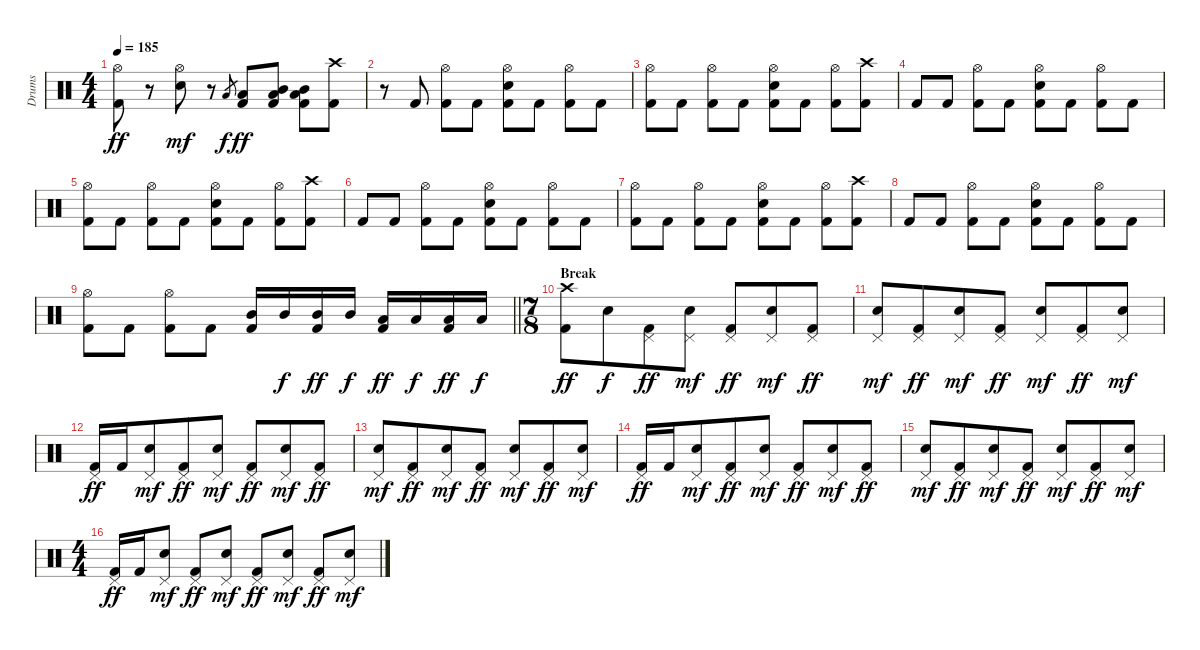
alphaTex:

\track ("Drums" "Drums") {instrument percussion}
\staff {score}
\articulation defaults
\ts (4 4)
\tempo 185
\clef neutral
\ks c
("Hi-Hat (open)" "Kick (hit) 2").8{dy ff} r.8 ("Hi-Hat (open)" "Electric Snare (hit)").8{dy mf} r.8 "Low Tom (hit)".8{gr dy f} ("Low Tom (hit)" "Kick (hit) 2").8{dy ff} ("Mid Tom (hit)" "Low Tom (hit)" "Kick (hit) 2").8 ("Mid Tom (hit)" "Low Tom (hit)" "Kick (hit) 2").8 ("Crash high (hit)" "Kick (hit) 2").8 |
r.8 "Kick (hit) 2".8 ("Hi-Hat (open)" "Kick (hit) 2").8 "Kick (hit) 2".8 ("Hi-Hat (open)" "Electric Snare (hit)" "Kick (hit) 2").8 "Kick (hit) 2".8 ("Hi-Hat (open)" "Kick (hit) 2").8 "Kick (hit) 2".8 |
("Hi-Hat (open)" "Kick (hit) 2").8 "Kick (hit) 2".8 ("Hi-Hat (open)" "Kick (hit) 2").8 "Kick (hit) 2".8 ("Hi-Hat (open)" "Electric Snare (hit)" "Kick (hit) 2").8 "Kick (hit) 2".8 ("Hi-Hat (open)" "Kick (hit) 2").8 ("Crash high (hit)" "Kick (hit) 2").8 |
"Kick (hit) 2".8 "Kick (hit) 2".8 ("Hi-Hat (open)" "Kick (hit) 2").8 "Kick (hit) 2".8 ("Hi-Hat (open)" "Electric Snare (hit)" "Kick (hit) 2").8 "Kick (hit) 2".8 ("Hi-Hat (open)" "Kick (hit) 2").8 "Kick (hit) 2".8 |
("Hi-Hat (open)" "Kick (hit) 2").8 "Kick (hit) 2".8 ("Hi-Hat (open)" "Kick (hit) 2").8 "Kick (hit) 2".8 ("Hi-Hat (open)" "Electric Snare (hit)" "Kick (hit) 2").8 "Kick (hit) 2".8 ("Hi-Hat (open)" "Kick (hit) 2").8 ("Crash high (hit)" "Kick (hit) 2").8 |
"Kick (hit) 2".8 "Kick (hit) 2".8 ("Hi-Hat (open)" "Kick (hit) 2").8 "Kick (hit) 2".8 ("Hi-Hat (open)" "Electric Snare (hit)" "Kick (hit) 2").8 "Kick (hit) 2".8 ("Hi-Hat (open)" "Kick (hit) 2").8 "Kick (hit) 2".8 |
("Hi-Hat (open)" "Kick (hit) 2").8 "Kick (hit) 2".8 ("Hi-Hat (open)" "Kick (hit) 2").8 "Kick (hit) 2".8 ("Hi-Hat (open)" "Electric Snare (hit)" "Kick (hit) 2").8 "Kick (hit) 2".8 ("Hi-Hat (open)" "Kick (hit) 2").8 ("Crash high (hit)" "Kick (hit) 2").8 |
"Kick (hit) 2".8 "Kick (hit) 2".8 ("Hi-Hat (open)" "Kick (hit) 2").8 "Kick (hit) 2".8 ("Hi-Hat (open)" "Electric Snare (hit)" "Kick (hit) 2").8 "Kick (hit) 2".8 ("Hi-Hat (open)" "Kick (hit) 2").8 "Kick (hit) 2".8 |
\barLineRight lightlight
("Hi-Hat (open)" "Kick (hit) 2").8 "Kick (hit) 2".8 ("Hi-Hat (open)" "Kick (hit) 2").8 "Kick (hit) 2".8 ("Mid Tom (hit)" "Kick (hit) 2").16 "Mid Tom (hit)".16{dy f} ("Mid Tom (hit)" "Kick (hit) 2").16{dy ff} "Mid Tom (hit)".16{dy f} ("Low Tom (hit)" "Kick (hit) 2").16{dy ff} "Low Tom (hit)".16{dy f} ("Low Tom (hit)" "Kick (hit) 2").16{dy ff} "Low Tom (hit)".16{dy f} |
\ts (7 8)
\section ("" "Break")
("Crash high (hit)" "Kick (hit) 2").8{dy ff} "Electric Snare (hit)".8{dy f} ("Pedal Hi-Hat (hit)" "Kick (hit) 2").8{dy ff} ("Pedal Hi-Hat (hit)" "Electric Snare (hit)").8{dy mf} ("Pedal Hi-Hat (hit)" "Kick (hit) 2").8{dy ff} ("Pedal Hi-Hat (hit)" "Electric Snare (hit)").8{dy mf} ("Pedal Hi-Hat (hit)" "Kick (hit) 2").8{dy ff} |
("Pedal Hi-Hat (hit)" "Electric Snare (hit)").8{dy mf} ("Pedal Hi-Hat (hit)" "Kick (hit) 2").8{dy ff} ("Pedal Hi-Hat (hit)" "Electric Snare (hit)").8{dy mf} ("Pedal Hi-Hat (hit)" "Kick (hit) 2").8{dy ff} ("Pedal Hi-Hat (hit)" "Electric Snare (hit)").8{dy mf} ("Pedal Hi-Hat (hit)" "Kick (hit) 2").8{dy ff} ("Pedal Hi-Hat (hit)" "Electric Snare (hit)").8{dy mf} |
("Pedal Hi-Hat (hit)" "Kick (hit) 2").16{dy ff} "Kick (hit) 2".16 ("Pedal Hi-Hat (hit)" "Electric Snare (hit)").8{dy mf} ("Pedal Hi-Hat (hit)" "Kick (hit) 2").8{dy ff} ("Pedal Hi-Hat (hit)" "Electric Snare (hit)").8{dy mf} ("Pedal Hi-Hat (hit)" "Kick (hit) 2").8{dy ff} ("Pedal Hi-Hat (hit)" "Electric Snare (hit)").8{dy mf} ("Pedal Hi-Hat (hit)" "Kick (hit) 2").8{dy ff} |
("Pedal Hi-Hat (hit)" "Electric Snare (hit)").8{dy mf} ("Pedal Hi-Hat (hit)" "Kick (hit) 2").8{dy ff} ("Pedal Hi-Hat (hit)" "Electric Snare (hit)").8{dy mf} ("Pedal Hi-Hat (hit)" "Kick (hit) 2").8{dy ff} ("Pedal Hi-Hat (hit)" "Electric Snare (hit)").8{dy mf} ("Pedal Hi-Hat (hit)" "Kick (hit) 2").8{dy ff} ("Pedal Hi-Hat (hit)" "Electric Snare (hit)").8{dy mf} |
("Pedal Hi-Hat (hit)" "Kick (hit) 2").16{dy ff} "Kick (hit) 2".16 ("Pedal Hi-Hat (hit)" "Electric Snare (hit)").8{dy mf} ("Pedal Hi-Hat (hit)" "Kick (hit) 2").8{dy ff} ("Pedal Hi-Hat (hit)" "Electric Snare (hit)").8{dy mf} ("Pedal Hi-Hat (hit)" "Kick (hit) 2").8{dy ff} ("Pedal Hi-Hat (hit)" "Electric Snare (hit)").8{dy mf} ("Pedal Hi-Hat (hit)" "Kick (hit) 2").8{dy ff} |
("Pedal Hi-Hat (hit)" "Electric Snare (hit)").8{dy mf} ("Pedal Hi-Hat (hit)" "Kick (hit) 2").8{dy ff} ("Pedal Hi-Hat (hit)" "Electric Snare (hit)").8{dy mf} ("Pedal Hi-Hat (hit)" "Kick (hit) 2").8{dy ff} ("Pedal Hi-Hat (hit)" "Electric Snare (hit)").8{dy mf} ("Pedal Hi-Hat (hit)" "Kick (hit) 2").8{dy ff} ("Pedal Hi-Hat (hit)" "Electric Snare (hit)").8{dy mf} |
\ts (4 4)
("Pedal Hi-Hat (hit)" "Kick (hit) 2").16{dy ff} "Kick (hit) 2".16 ("Pedal Hi-Hat (hit)" "Electric Snare (hit)").8{dy mf} ("Pedal Hi-Hat (hit)" "Kick (hit) 2").8{dy ff} ("Pedal Hi-Hat (hit)" "Electric Snare (hit)").8{dy mf} ("Pedal Hi-Hat (hit)" "Kick (hit) 2").8{dy ff} ("Pedal Hi-Hat (hit)" "Electric Snare (hit)").8{dy mf} ("Pedal Hi-Hat (hit)" "Kick (hit) 2").8{dy ff} ("Pedal Hi-Hat (hit)" "Electric Snare (hit)").8{dy mf}
